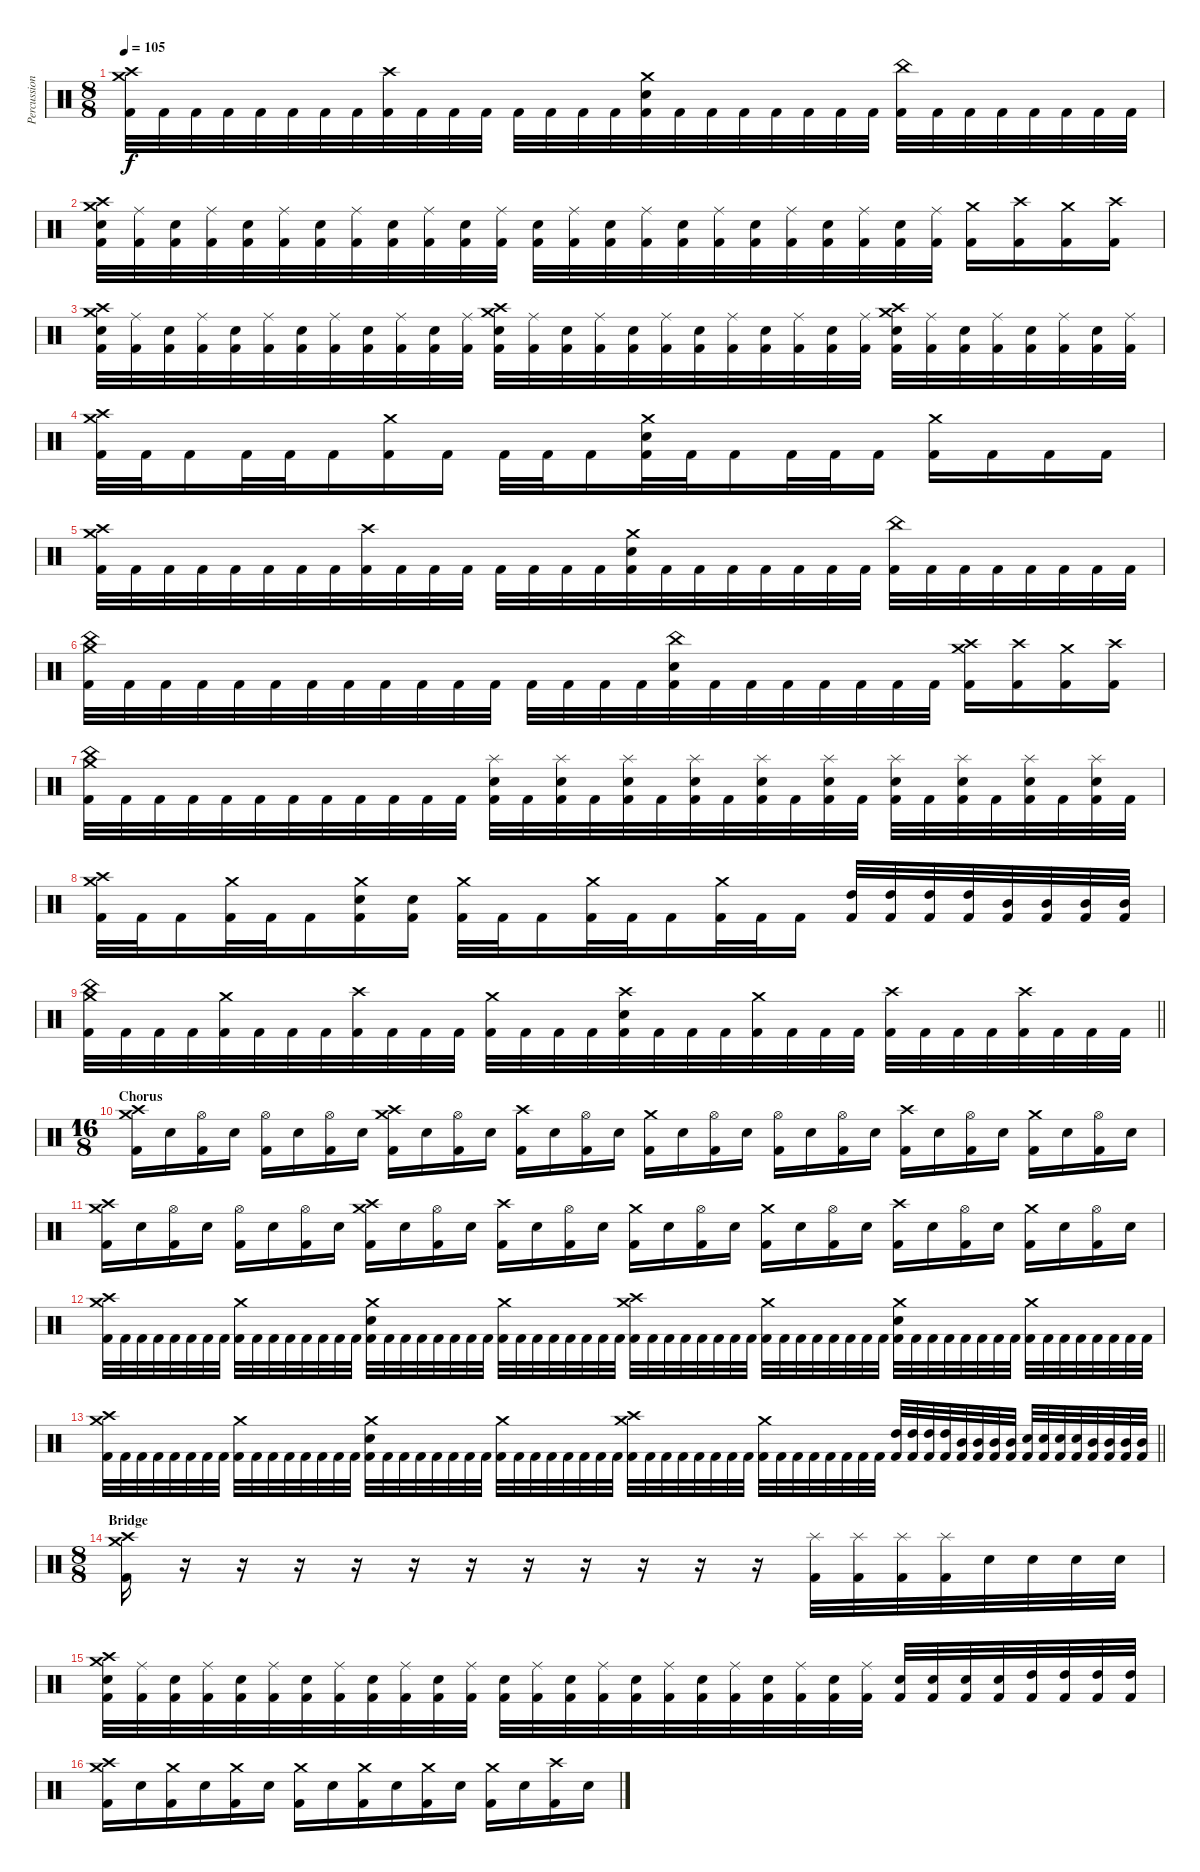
\track ("Percussion" "Percussion") {instrument percussion}
\staff {score}
\articulation defaults
\ts (8 8)
\tempo 105
\clef neutral
\ks c
("Crash medium (hit)" "Crash high (hit)" "Kick (hit) 2").32{dy f} "Kick (hit) 2".32 "Kick (hit) 2".32 "Kick (hit) 2".32 "Kick (hit) 2".32 "Kick (hit) 2".32 "Kick (hit) 2".32 "Kick (hit) 2".32 ("Crash high (hit)" "Kick (hit) 2").32 "Kick (hit) 2".32 "Kick (hit) 2".32 "Kick (hit) 2".32 "Kick (hit) 2".32 "Kick (hit) 2".32 "Kick (hit) 2".32 "Kick (hit) 2".32 ("Crash medium (hit)" "Snare (hit) 2" "Kick (hit) 2").32 "Kick (hit) 2".32 "Kick (hit) 2".32 "Kick (hit) 2".32 "Kick (hit) 2".32 "Kick (hit) 2".32 "Kick (hit) 2".32 "Kick (hit) 2".32 ("China (hit)" "Kick (hit) 2").32 "Kick (hit) 2".32 "Kick (hit) 2".32 "Kick (hit) 2".32 "Kick (hit) 2".32 "Kick (hit) 2".32 "Kick (hit) 2".32 "Kick (hit) 2".32 |
("Crash medium (hit)" "Crash high (hit)" "Snare (hit) 2" "Kick (hit) 2").32 ("Ride (middle)" "Kick (hit) 2").32 ("Snare (hit) 2" "Kick (hit) 2").32 ("Ride (middle)" "Kick (hit) 2").32 ("Snare (hit) 2" "Kick (hit) 2").32 ("Ride (middle)" "Kick (hit) 2").32 ("Snare (hit) 2" "Kick (hit) 2").32 ("Ride (middle)" "Kick (hit) 2").32 ("Snare (hit) 2" "Kick (hit) 2").32 ("Ride (middle)" "Kick (hit) 2").32 ("Snare (hit) 2" "Kick (hit) 2").32 ("Ride (middle)" "Kick (hit) 2").32 ("Snare (hit) 2" "Kick (hit) 2").32 ("Ride (middle)" "Kick (hit) 2").32 ("Snare (hit) 2" "Kick (hit) 2").32 ("Ride (middle)" "Kick (hit) 2").32 ("Snare (hit) 2" "Kick (hit) 2").32 ("Ride (middle)" "Kick (hit) 2").32 ("Snare (hit) 2" "Kick (hit) 2").32 ("Ride (middle)" "Kick (hit) 2").32 ("Snare (hit) 2" "Kick (hit) 2").32 ("Ride (middle)" "Kick (hit) 2").32 ("Snare (hit) 2" "Kick (hit) 2").32 ("Ride (middle)" "Kick (hit) 2").32 ("Crash medium (hit)" "Kick (hit) 2").16 ("Crash high (hit)" "Kick (hit) 2").16 ("Crash medium (hit)" "Kick (hit) 2").16 ("Crash high (hit)" "Kick (hit) 2").16 |
("Crash medium (hit)" "Crash high (hit)" "Snare (hit) 2" "Kick (hit) 2").32 ("Ride (middle)" "Kick (hit) 2").32 ("Snare (hit) 2" "Kick (hit) 2").32 ("Ride (middle)" "Kick (hit) 2").32 ("Snare (hit) 2" "Kick (hit) 2").32 ("Ride (middle)" "Kick (hit) 2").32 ("Snare (hit) 2" "Kick (hit) 2").32 ("Ride (middle)" "Kick (hit) 2").32 ("Snare (hit) 2" "Kick (hit) 2").32 ("Ride (middle)" "Kick (hit) 2").32 ("Snare (hit) 2" "Kick (hit) 2").32 ("Ride (middle)" "Kick (hit) 2").32 ("Crash medium (hit)" "Crash high (hit)" "Snare (hit) 2" "Kick (hit) 2").32 ("Ride (middle)" "Kick (hit) 2").32 ("Snare (hit) 2" "Kick (hit) 2").32 ("Ride (middle)" "Kick (hit) 2").32 ("Snare (hit) 2" "Kick (hit) 2").32 ("Ride (middle)" "Kick (hit) 2").32 ("Snare (hit) 2" "Kick (hit) 2").32 ("Ride (middle)" "Kick (hit) 2").32 ("Snare (hit) 2" "Kick (hit) 2").32 ("Ride (middle)" "Kick (hit) 2").32 ("Snare (hit) 2" "Kick (hit) 2").32 ("Ride (middle)" "Kick (hit) 2").32 ("Crash medium (hit)" "Crash high (hit)" "Snare (hit) 2" "Kick (hit) 2").32 ("Ride (middle)" "Kick (hit) 2").32 ("Snare (hit) 2" "Kick (hit) 2").32 ("Ride (middle)" "Kick (hit) 2").32 ("Snare (hit) 2" "Kick (hit) 2").32 ("Ride (middle)" "Kick (hit) 2").32 ("Snare (hit) 2" "Kick (hit) 2").32 ("Ride (middle)" "Kick (hit) 2").32 |
("Crash medium (hit)" "Crash high (hit)" "Kick (hit) 2").32 "Kick (hit) 2".32 "Kick (hit) 2".16 "Kick (hit) 2".32 "Kick (hit) 2".32 "Kick (hit) 2".16 ("Crash medium (hit)" "Kick (hit) 2").16 "Kick (hit) 2".16 "Kick (hit) 2".32 "Kick (hit) 2".32 "Kick (hit) 2".16 ("Crash medium (hit)" "Snare (hit) 2" "Kick (hit) 2").32 "Kick (hit) 2".32 "Kick (hit) 2".16 "Kick (hit) 2".32 "Kick (hit) 2".32 "Kick (hit) 2".16 ("Crash medium (hit)" "Kick (hit) 2").16 "Kick (hit) 2".16 "Kick (hit) 2".16 "Kick (hit) 2".16 |
("Crash medium (hit)" "Crash high (hit)" "Kick (hit) 2").32 "Kick (hit) 2".32 "Kick (hit) 2".32 "Kick (hit) 2".32 "Kick (hit) 2".32 "Kick (hit) 2".32 "Kick (hit) 2".32 "Kick (hit) 2".32 ("Crash high (hit)" "Kick (hit) 2").32 "Kick (hit) 2".32 "Kick (hit) 2".32 "Kick (hit) 2".32 "Kick (hit) 2".32 "Kick (hit) 2".32 "Kick (hit) 2".32 "Kick (hit) 2".32 ("Crash medium (hit)" "Snare (hit) 2" "Kick (hit) 2").32 "Kick (hit) 2".32 "Kick (hit) 2".32 "Kick (hit) 2".32 "Kick (hit) 2".32 "Kick (hit) 2".32 "Kick (hit) 2".32 "Kick (hit) 2".32 ("China (hit)" "Kick (hit) 2").32 "Kick (hit) 2".32 "Kick (hit) 2".32 "Kick (hit) 2".32 "Kick (hit) 2".32 "Kick (hit) 2".32 "Kick (hit) 2".32 "Kick (hit) 2".32 |
("Crash medium (hit)" "China (hit)" "Kick (hit) 2").32 "Kick (hit) 2".32 "Kick (hit) 2".32 "Kick (hit) 2".32 "Kick (hit) 2".32 "Kick (hit) 2".32 "Kick (hit) 2".32 "Kick (hit) 2".32 "Kick (hit) 2".32 "Kick (hit) 2".32 "Kick (hit) 2".32 "Kick (hit) 2".32 "Kick (hit) 2".32 "Kick (hit) 2".32 "Kick (hit) 2".32 "Kick (hit) 2".32 ("China (hit)" "Snare (hit) 2" "Kick (hit) 2").32 "Kick (hit) 2".32 "Kick (hit) 2".32 "Kick (hit) 2".32 "Kick (hit) 2".32 "Kick (hit) 2".32 "Kick (hit) 2".32 "Kick (hit) 2".32 ("Crash medium (hit)" "Crash high (hit)" "Kick (hit) 2").16 ("Crash high (hit)" "Kick (hit) 2").16 ("Crash medium (hit)" "Kick (hit) 2").16 ("Crash high (hit)" "Kick (hit) 2").16 |
("Crash medium (hit)" "China (hit)" "Kick (hit) 2").32 "Kick (hit) 2".32 "Kick (hit) 2".32 "Kick (hit) 2".32 "Kick (hit) 2".32 "Kick (hit) 2".32 "Kick (hit) 2".32 "Kick (hit) 2".32 "Kick (hit) 2".32 "Kick (hit) 2".32 "Kick (hit) 2".32 "Kick (hit) 2".32 ("Splash (hit)" "Snare (hit) 2" "Kick (hit) 2").32 "Kick (hit) 2".32 ("Splash (hit)" "Snare (hit) 2" "Kick (hit) 2").32 "Kick (hit) 2".32 ("Splash (hit)" "Snare (hit) 2" "Kick (hit) 2").32 "Kick (hit) 2".32 ("Splash (hit)" "Snare (hit) 2" "Kick (hit) 2").32 "Kick (hit) 2".32 ("Splash (hit)" "Snare (hit) 2" "Kick (hit) 2").32 "Kick (hit) 2".32 ("Splash (hit)" "Snare (hit) 2" "Kick (hit) 2").32 "Kick (hit) 2".32 ("Splash (hit)" "Snare (hit) 2" "Kick (hit) 2").32 "Kick (hit) 2".32 ("Splash (hit)" "Snare (hit) 2" "Kick (hit) 2").32 "Kick (hit) 2".32 ("Splash (hit)" "Snare (hit) 2" "Kick (hit) 2").32 "Kick (hit) 2".32 ("Splash (hit)" "Snare (hit) 2" "Kick (hit) 2").32 "Kick (hit) 2".32 |
("Crash medium (hit)" "Crash high (hit)" "Kick (hit) 2").32 "Kick (hit) 2".32 "Kick (hit) 2".16 ("Crash medium (hit)" "Kick (hit) 2").32 "Kick (hit) 2".32 "Kick (hit) 2".16 ("Crash medium (hit)" "Snare (hit) 2" "Kick (hit) 2").16 ("Snare (hit) 2" "Kick (hit) 2").16 ("Crash medium (hit)" "Kick (hit) 2").32 "Kick (hit) 2".32 "Kick (hit) 2".16 ("Crash medium (hit)" "Kick (hit) 2").32 "Kick (hit) 2".32 "Kick (hit) 2".16 ("Crash medium (hit)" "Kick (hit) 2").32 "Kick (hit) 2".32 "Kick (hit) 2".16 ("High Tom (hit)" "Kick (hit) 2").32 ("High Tom (hit)" "Kick (hit) 2").32 ("High Tom (hit)" "Kick (hit) 2").32 ("High Tom (hit)" "Kick (hit) 2").32 ("Mid Tom (hit)" "Kick (hit) 2").32 ("Mid Tom (hit)" "Kick (hit) 2").32 ("Mid Tom (hit)" "Kick (hit) 2").32 ("Mid Tom (hit)" "Kick (hit) 2").32 |
\barLineRight lightlight
("Crash medium (hit)" "China (hit)" "Kick (hit) 2").32 "Kick (hit) 2".32 "Kick (hit) 2".32 "Kick (hit) 2".32 ("Crash medium (hit)" "Kick (hit) 2").32 "Kick (hit) 2".32 "Kick (hit) 2".32 "Kick (hit) 2".32 ("Crash high (hit)" "Kick (hit) 2").32 "Kick (hit) 2".32 "Kick (hit) 2".32 "Kick (hit) 2".32 ("Crash medium (hit)" "Kick (hit) 2").32 "Kick (hit) 2".32 "Kick (hit) 2".32 "Kick (hit) 2".32 ("Crash high (hit)" "Snare (hit) 2" "Kick (hit) 2").32 "Kick (hit) 2".32 "Kick (hit) 2".32 "Kick (hit) 2".32 ("Crash medium (hit)" "Kick (hit) 2").32 "Kick (hit) 2".32 "Kick (hit) 2".32 "Kick (hit) 2".32 ("Crash high (hit)" "Kick (hit) 2").32 "Kick (hit) 2".32 "Kick (hit) 2".32 "Kick (hit) 2".32 ("Crash high (hit)" "Kick (hit) 2").32 "Kick (hit) 2".32 "Kick (hit) 2".32 "Kick (hit) 2".32 |
\ts (16 8)
\section ("" "Chorus")
("Crash medium (hit)" "Crash high (hit)" "Kick (hit) 2").16 "Snare (hit) 2".16 ("Hi-Hat (open)" "Kick (hit) 2").16 "Snare (hit) 2".16 ("Hi-Hat (open)" "Kick (hit) 2").16 "Snare (hit) 2".16 ("Hi-Hat (open)" "Kick (hit) 2").16 "Snare (hit) 2".16 ("Crash medium (hit)" "Crash high (hit)" "Kick (hit) 2").16 "Snare (hit) 2".16 ("Hi-Hat (open)" "Kick (hit) 2").16 "Snare (hit) 2".16 ("Crash high (hit)" "Kick (hit) 2").16 "Snare (hit) 2".16 ("Hi-Hat (open)" "Kick (hit) 2").16 "Snare (hit) 2".16 ("Crash medium (hit)" "Kick (hit) 2").16 "Snare (hit) 2".16 ("Hi-Hat (open)" "Kick (hit) 2").16 "Snare (hit) 2".16 ("Hi-Hat (open)" "Kick (hit) 2").16 "Snare (hit) 2".16 ("Hi-Hat (open)" "Kick (hit) 2").16 "Snare (hit) 2".16 ("Crash high (hit)" "Kick (hit) 2").16 "Snare (hit) 2".16 ("Hi-Hat (open)" "Kick (hit) 2").16 "Snare (hit) 2".16 ("Crash medium (hit)" "Kick (hit) 2").16 "Snare (hit) 2".16 ("Hi-Hat (open)" "Kick (hit) 2").16 "Snare (hit) 2".16 |
("Crash medium (hit)" "Crash high (hit)" "Kick (hit) 2").16 "Snare (hit) 2".16 ("Hi-Hat (open)" "Kick (hit) 2").16 "Snare (hit) 2".16 ("Hi-Hat (open)" "Kick (hit) 2").16 "Snare (hit) 2".16 ("Hi-Hat (open)" "Kick (hit) 2").16 "Snare (hit) 2".16 ("Crash medium (hit)" "Crash high (hit)" "Kick (hit) 2").16 "Snare (hit) 2".16 ("Hi-Hat (open)" "Kick (hit) 2").16 "Snare (hit) 2".16 ("Crash high (hit)" "Kick (hit) 2").16 "Snare (hit) 2".16 ("Hi-Hat (open)" "Kick (hit) 2").16 "Snare (hit) 2".16 ("Crash medium (hit)" "Kick (hit) 2").16 "Snare (hit) 2".16 ("Hi-Hat (open)" "Kick (hit) 2").16 "Snare (hit) 2".16 ("Crash medium (hit)" "Kick (hit) 2").16 "Snare (hit) 2".16 ("Hi-Hat (open)" "Kick (hit) 2").16 "Snare (hit) 2".16 ("Crash high (hit)" "Kick (hit) 2").16 "Snare (hit) 2".16 ("Hi-Hat (open)" "Kick (hit) 2").16 "Snare (hit) 2".16 ("Crash medium (hit)" "Kick (hit) 2").16 "Snare (hit) 2".16 ("Hi-Hat (open)" "Kick (hit) 2").16 "Snare (hit) 2".16 |
("Crash medium (hit)" "Crash high (hit)" "Kick (hit) 2").32 "Kick (hit) 2".32 "Kick (hit) 2".32 "Kick (hit) 2".32 "Kick (hit) 2".32 "Kick (hit) 2".32 "Kick (hit) 2".32 "Kick (hit) 2".32 ("Crash medium (hit)" "Kick (hit) 2").32 "Kick (hit) 2".32 "Kick (hit) 2".32 "Kick (hit) 2".32 "Kick (hit) 2".32 "Kick (hit) 2".32 "Kick (hit) 2".32 "Kick (hit) 2".32 ("Crash medium (hit)" "Snare (hit) 2" "Kick (hit) 2").32 "Kick (hit) 2".32 "Kick (hit) 2".32 "Kick (hit) 2".32 "Kick (hit) 2".32 "Kick (hit) 2".32 "Kick (hit) 2".32 "Kick (hit) 2".32 ("Crash medium (hit)" "Kick (hit) 2").32 "Kick (hit) 2".32 "Kick (hit) 2".32 "Kick (hit) 2".32 "Kick (hit) 2".32 "Kick (hit) 2".32 "Kick (hit) 2".32 "Kick (hit) 2".32 ("Crash high (hit)" "Crash medium (hit)" "Kick (hit) 2").32 "Kick (hit) 2".32 "Kick (hit) 2".32 "Kick (hit) 2".32 "Kick (hit) 2".32 "Kick (hit) 2".32 "Kick (hit) 2".32 "Kick (hit) 2".32 ("Crash medium (hit)" "Kick (hit) 2").32 "Kick (hit) 2".32 "Kick (hit) 2".32 "Kick (hit) 2".32 "Kick (hit) 2".32 "Kick (hit) 2".32 "Kick (hit) 2".32 "Kick (hit) 2".32 ("Crash medium (hit)" "Snare (hit) 2" "Kick (hit) 2").32 "Kick (hit) 2".32 "Kick (hit) 2".32 "Kick (hit) 2".32 "Kick (hit) 2".32 "Kick (hit) 2".32 "Kick (hit) 2".32 "Kick (hit) 2".32 ("Crash medium (hit)" "Kick (hit) 2").32 "Kick (hit) 2".32 "Kick (hit) 2".32 "Kick (hit) 2".32 "Kick (hit) 2".32 "Kick (hit) 2".32 "Kick (hit) 2".32 "Kick (hit) 2".32 |
\barLineRight lightlight
("Crash medium (hit)" "Crash high (hit)" "Kick (hit) 2").32 "Kick (hit) 2".32 "Kick (hit) 2".32 "Kick (hit) 2".32 "Kick (hit) 2".32 "Kick (hit) 2".32 "Kick (hit) 2".32 "Kick (hit) 2".32 ("Crash medium (hit)" "Kick (hit) 2").32 "Kick (hit) 2".32 "Kick (hit) 2".32 "Kick (hit) 2".32 "Kick (hit) 2".32 "Kick (hit) 2".32 "Kick (hit) 2".32 "Kick (hit) 2".32 ("Crash medium (hit)" "Snare (hit) 2" "Kick (hit) 2").32 "Kick (hit) 2".32 "Kick (hit) 2".32 "Kick (hit) 2".32 "Kick (hit) 2".32 "Kick (hit) 2".32 "Kick (hit) 2".32 "Kick (hit) 2".32 ("Crash medium (hit)" "Kick (hit) 2").32 "Kick (hit) 2".32 "Kick (hit) 2".32 "Kick (hit) 2".32 "Kick (hit) 2".32 "Kick (hit) 2".32 "Kick (hit) 2".32 "Kick (hit) 2".32 ("Crash high (hit)" "Crash medium (hit)" "Kick (hit) 2").32 "Kick (hit) 2".32 "Kick (hit) 2".32 "Kick (hit) 2".32 "Kick (hit) 2".32 "Kick (hit) 2".32 "Kick (hit) 2".32 "Kick (hit) 2".32 ("Crash medium (hit)" "Kick (hit) 2").32 "Kick (hit) 2".32 "Kick (hit) 2".32 "Kick (hit) 2".32 "Kick (hit) 2".32 "Kick (hit) 2".32 "Kick (hit) 2".32 "Kick (hit) 2".32 ("High Tom (hit)" "Kick (hit) 2").32 ("High Tom (hit)" "Kick (hit) 2").32 ("High Tom (hit)" "Kick (hit) 2").32 ("High Tom (hit)" "Kick (hit) 2").32 ("Mid Tom (hit)" "Kick (hit) 2").32 ("Mid Tom (hit)" "Kick (hit) 2").32 ("Mid Tom (hit)" "Kick (hit) 2").32 ("Mid Tom (hit)" "Kick (hit) 2").32 ("Snare (hit) 2" "Kick (hit) 2").32 ("Snare (hit) 2" "Kick (hit) 2").32 ("Snare (hit) 2" "Kick (hit) 2").32 ("Snare (hit) 2" "Kick (hit) 2").32 ("Mid Tom (hit)" "Kick (hit) 2").32 ("Mid Tom (hit)" "Kick (hit) 2").32 ("Mid Tom (hit)" "Kick (hit) 2").32 ("Mid Tom (hit)" "Kick (hit) 2").32 |
\ts (8 8)
\section ("" "Bridge")
("Crash high (hit)" "Crash medium (hit)" "Kick (hit) 2").16 r.16 r.16{volume 0} r.16 r.16 r.16 r.16 r.16 r.16 r.16 r.16 r.16{volume 14} ("Splash (hit)" "Kick (hit) 2").32 ("Splash (hit)" "Kick (hit) 2").32 ("Splash (hit)" "Kick (hit) 2").32 ("Splash (hit)" "Kick (hit) 2").32 "Snare (hit) 2".32 "Snare (hit) 2".32 "Snare (hit) 2".32 "Snare (hit) 2".32 |
("Crash medium (hit)" "Crash high (hit)" "Snare (hit) 2" "Kick (hit) 2").32 ("Ride (middle)" "Kick (hit) 2").32 ("Snare (hit) 2" "Kick (hit) 2").32 ("Ride (middle)" "Kick (hit) 2").32 ("Snare (hit) 2" "Kick (hit) 2").32 ("Ride (middle)" "Kick (hit) 2").32 ("Snare (hit) 2" "Kick (hit) 2").32 ("Ride (middle)" "Kick (hit) 2").32 ("Snare (hit) 2" "Kick (hit) 2").32 ("Ride (middle)" "Kick (hit) 2").32 ("Snare (hit) 2" "Kick (hit) 2").32 ("Ride (middle)" "Kick (hit) 2").32 ("Snare (hit) 2" "Kick (hit) 2").32 ("Ride (middle)" "Kick (hit) 2").32 ("Snare (hit) 2" "Kick (hit) 2").32 ("Ride (middle)" "Kick (hit) 2").32 ("Snare (hit) 2" "Kick (hit) 2").32 ("Ride (middle)" "Kick (hit) 2").32 ("Snare (hit) 2" "Kick (hit) 2").32 ("Ride (middle)" "Kick (hit) 2").32 ("Snare (hit) 2" "Kick (hit) 2").32 ("Ride (middle)" "Kick (hit) 2").32 ("Snare (hit) 2" "Kick (hit) 2").32 ("Ride (middle)" "Kick (hit) 2").32 ("Snare (hit) 2" "Kick (hit) 2").32 ("Snare (hit) 2" "Kick (hit) 2").32 ("Snare (hit) 2" "Kick (hit) 2").32 ("Snare (hit) 2" "Kick (hit) 2").32 ("High Tom (hit)" "Kick (hit) 2").32 ("High Tom (hit)" "Kick (hit) 2").32 ("High Tom (hit)" "Kick (hit) 2").32 ("High Tom (hit)" "Kick (hit) 2").32 |
("Crash medium (hit)" "Crash high (hit)" "Kick (hit) 2").16 "Snare (hit) 2".16 ("Crash medium (hit)" "Kick (hit) 2").16 "Snare (hit) 2".16 ("Crash medium (hit)" "Kick (hit) 2").16 "Snare (hit) 2".16 ("Crash medium (hit)" "Kick (hit) 2").16 "Snare (hit) 2".16 ("Crash medium (hit)" "Kick (hit) 2").16 "Snare (hit) 2".16 ("Crash medium (hit)" "Kick (hit) 2").16 "Snare (hit) 2".16 ("Crash medium (hit)" "Kick (hit) 2").16 "Snare (hit) 2".16 ("Crash high (hit)" "Kick (hit) 2").16 "Snare (hit) 2".16
